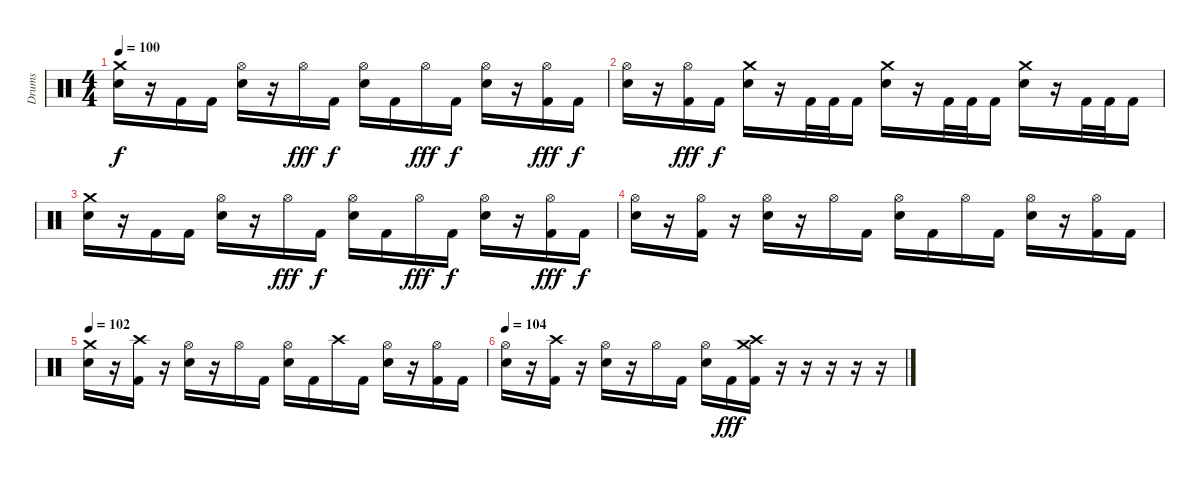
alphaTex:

\track ("Drums" "Drums") {instrument percussion}
\staff {score}
\articulation defaults
\ts (4 4)
\tempo 100
\clef neutral
\ks c
("Crash medium (hit)" "Electric Snare (hit)").16{dy f} r.16 "Kick (hit) 2".16 "Kick (hit) 2".16 ("Hi-Hat (open)" "Electric Snare (hit)").16 r.16 "Hi-Hat (open)".16{dy fff} "Kick (hit) 2".16{dy f} ("Hi-Hat (open)" "Electric Snare (hit)").16 "Kick (hit) 2".16 "Hi-Hat (open)".16{dy fff} "Kick (hit) 2".16{dy f} ("Hi-Hat (open)" "Electric Snare (hit)").16 r.16 ("Hi-Hat (open)" "Kick (hit) 2").16{dy fff} "Kick (hit) 2".16{dy f} |
("Hi-Hat (open)" "Electric Snare (hit)").16 r.16 ("Hi-Hat (open)" "Kick (hit) 2").16{dy fff} "Kick (hit) 2".16{dy f} ("Crash medium (hit)" "Electric Snare (hit)").16 r.16 "Kick (hit) 2".32 "Kick (hit) 2".32 "Kick (hit) 2".16 ("Crash medium (hit)" "Electric Snare (hit)").16 r.16 "Kick (hit) 2".32 "Kick (hit) 2".32 "Kick (hit) 2".16 ("Crash medium (hit)" "Electric Snare (hit)").16 r.16 "Kick (hit) 2".32 "Kick (hit) 2".32 "Kick (hit) 2".16 |
("Crash medium (hit)" "Electric Snare (hit)").16 r.16 "Kick (hit) 2".16 "Kick (hit) 2".16 ("Hi-Hat (open)" "Electric Snare (hit)").16 r.16 "Hi-Hat (open)".16{dy fff} "Kick (hit) 2".16{dy f} ("Hi-Hat (open)" "Electric Snare (hit)").16 "Kick (hit) 2".16 "Hi-Hat (open)".16{dy fff} "Kick (hit) 2".16{dy f} ("Hi-Hat (open)" "Electric Snare (hit)").16 r.16 ("Hi-Hat (open)" "Kick (hit) 2").16{dy fff} "Kick (hit) 2".16{dy f} |
("Hi-Hat (open)" "Electric Snare (hit)").16 r.16 ("Hi-Hat (open)" "Kick (hit) 2").16 r.16 ("Hi-Hat (open)" "Electric Snare (hit)").16 r.16 "Hi-Hat (open)".16 "Kick (hit) 2".16 ("Hi-Hat (open)" "Electric Snare (hit)").16 "Kick (hit) 2".16 "Hi-Hat (open)".16 "Kick (hit) 2".16 ("Hi-Hat (open)" "Electric Snare (hit)").16 r.16 ("Hi-Hat (open)" "Kick (hit) 2").16 "Kick (hit) 2".16 |
\tempo 102
("Crash medium (hit)" "Electric Snare (hit)").16 r.16 ("Crash high (hit)" "Kick (hit) 2").16 r.16 ("Hi-Hat (open)" "Electric Snare (hit)").16 r.16 "Hi-Hat (open)".16 "Kick (hit) 2".16 ("Hi-Hat (open)" "Electric Snare (hit)").16 "Kick (hit) 2".16 "Crash high (hit)".16 "Kick (hit) 2".16 ("Hi-Hat (open)" "Electric Snare (hit)").16 r.16 ("Hi-Hat (open)" "Kick (hit) 2").16 "Kick (hit) 2".16 |
\tempo 104
("Hi-Hat (open)" "Electric Snare (hit)").16 r.16 ("Crash high (hit)" "Kick (hit) 2").16 r.16 ("Hi-Hat (open)" "Electric Snare (hit)").16 r.16 "Hi-Hat (open)".16 "Kick (hit) 2".16 ("Hi-Hat (open)" "Electric Snare (hit)").16 "Kick (hit) 2".16{dy fff} ("Crash medium (hit)" "Crash high (hit)" "Kick (hit) 2").16 r.16 r.16 r.16 r.16 r.16
